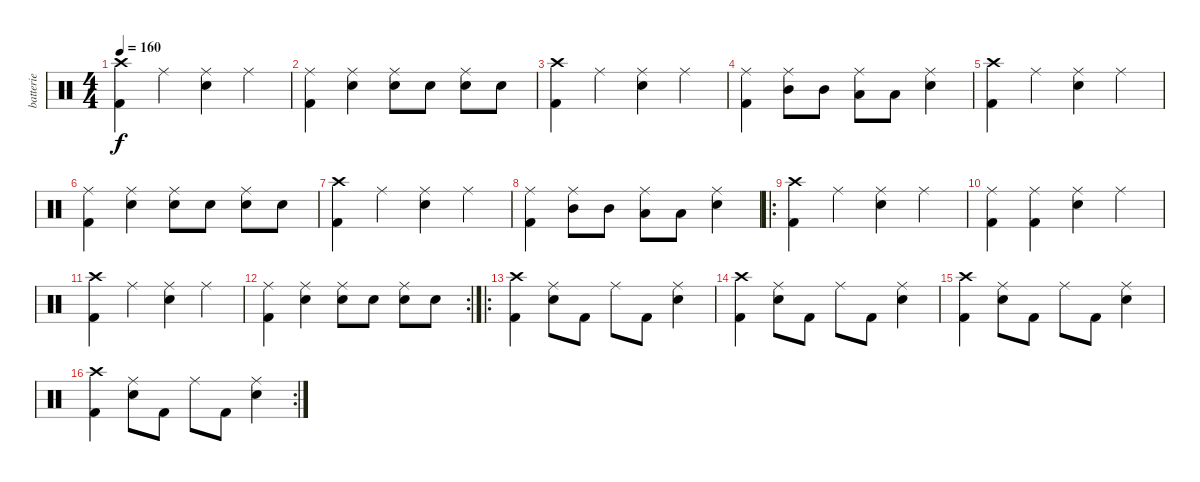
\track ("batterie" "batterie") {instrument percussion}
\staff {score}
\articulation defaults
\ts (4 4)
\tempo 160
\clef neutral
\ks c
("Crash high (hit)" "Kick (hit) 2").4{dy f} "Ride (middle)".4 ("Ride (middle)" "Snare (hit) 2").4 "Ride (middle)".4 |
("Kick (hit) 2" "Ride (middle)").4 ("Snare (hit) 2" "Ride (middle)").4 ("Snare (hit) 2" "Ride (middle)").8 "Snare (hit) 2".8 ("Snare (hit) 2" "Ride (middle)").8 "Snare (hit) 2".8 |
("Crash high (hit)" "Kick (hit) 2").4 "Ride (middle)".4 ("Ride (middle)" "Snare (hit) 2").4 "Ride (middle)".4 |
("Ride (middle)" "Kick (hit) 2").4 ("Ride (middle)" "Mid Tom (hit)").8 "Mid Tom (hit)".8 ("Ride (middle)" "Low Tom (hit)").8 "Low Tom (hit)".8 ("Ride (middle)" "Snare (hit) 2").4 |
("Crash high (hit)" "Kick (hit) 2").4 "Ride (middle)".4 ("Ride (middle)" "Snare (hit) 2").4 "Ride (middle)".4 |
("Kick (hit) 2" "Ride (middle)").4 ("Snare (hit) 2" "Ride (middle)").4 ("Snare (hit) 2" "Ride (middle)").8 "Snare (hit) 2".8 ("Snare (hit) 2" "Ride (middle)").8 "Snare (hit) 2".8 |
("Crash high (hit)" "Kick (hit) 2").4 "Ride (middle)".4 ("Ride (middle)" "Snare (hit) 2").4 "Ride (middle)".4 |
("Ride (middle)" "Kick (hit) 2").4 ("Ride (middle)" "Mid Tom (hit)").8 "Mid Tom (hit)".8 ("Ride (middle)" "Low Tom (hit)").8 "Low Tom (hit)".8 ("Ride (middle)" "Snare (hit) 2").4 |
\ro
("Crash high (hit)" "Kick (hit) 2").4 "Ride (middle)".4 ("Ride (middle)" "Snare (hit) 2").4 "Ride (middle)".4 |
("Ride (middle)" "Kick (hit) 2").4 ("Ride (middle)" "Kick (hit) 2").4 ("Ride (middle)" "Snare (hit) 2").4 "Ride (middle)".4 |
("Crash high (hit)" "Kick (hit) 2").4 "Ride (middle)".4 ("Ride (middle)" "Snare (hit) 2").4 "Ride (middle)".4 |
\rc 2
("Kick (hit) 2" "Ride (middle)").4 ("Snare (hit) 2" "Ride (middle)").4 ("Snare (hit) 2" "Ride (middle)").8 "Snare (hit) 2".8 ("Snare (hit) 2" "Ride (middle)").8 "Snare (hit) 2".8 |
\ro
("Kick (hit) 2" "Crash high (hit)").4 ("Snare (hit) 2" "Ride (middle)").8 "Kick (hit) 2".8 "Ride (middle)".8 "Kick (hit) 2".8 ("Snare (hit) 2" "Ride (middle)").4 |
("Kick (hit) 2" "Crash high (hit)").4 ("Snare (hit) 2" "Ride (middle)").8 "Kick (hit) 2".8 "Ride (middle)".8 "Kick (hit) 2".8 ("Snare (hit) 2" "Ride (middle)").4 |
("Kick (hit) 2" "Crash high (hit)").4 ("Snare (hit) 2" "Ride (middle)").8 "Kick (hit) 2".8 "Ride (middle)".8 "Kick (hit) 2".8 ("Snare (hit) 2" "Ride (middle)").4 |
\rc 2
("Kick (hit) 2" "Crash high (hit)").4 ("Snare (hit) 2" "Ride (middle)").8 "Kick (hit) 2".8 "Ride (middle)".8 "Kick (hit) 2".8 ("Snare (hit) 2" "Ride (middle)").4
